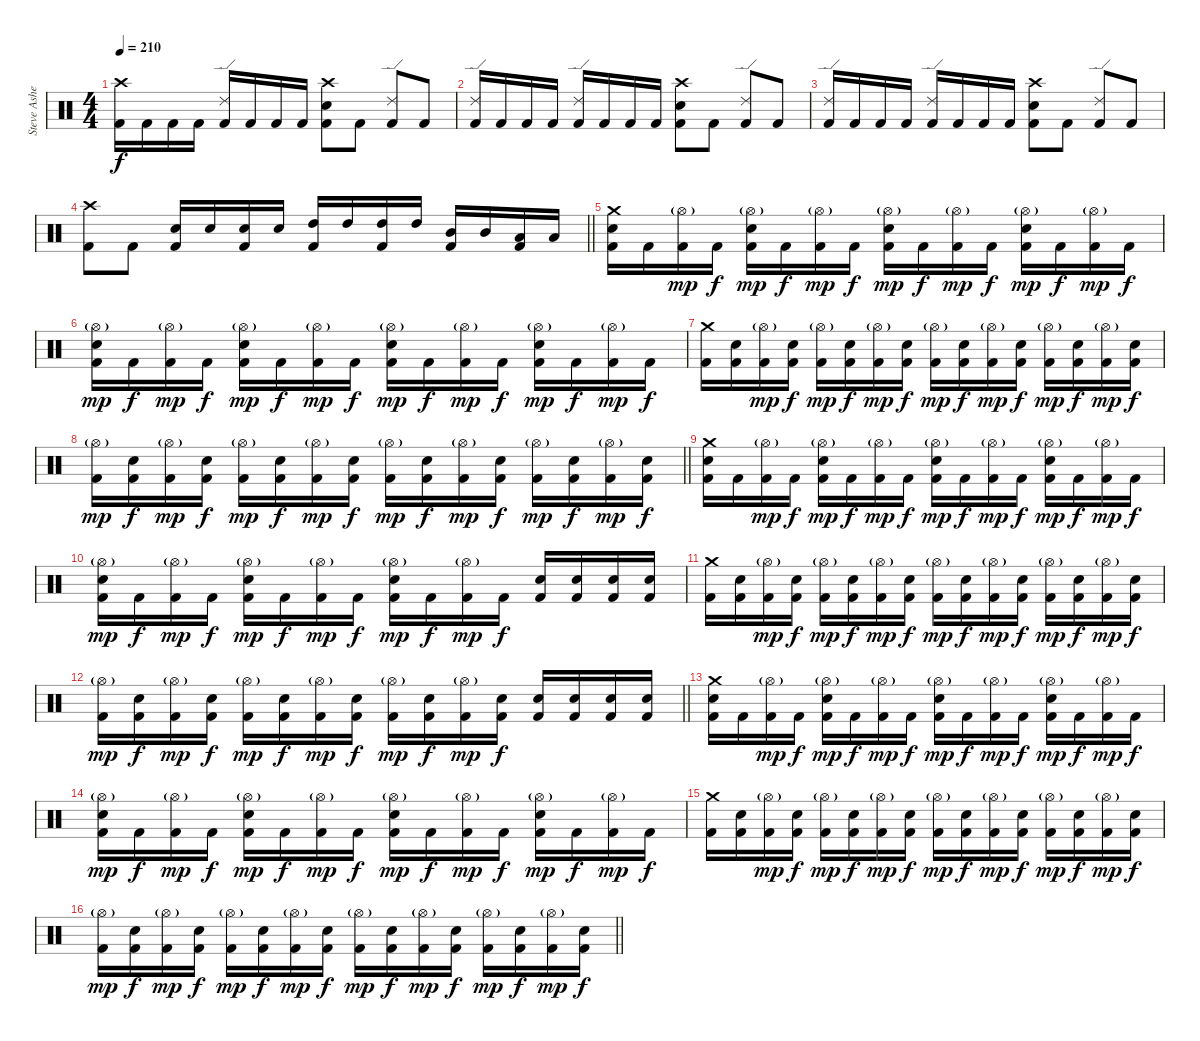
\track ("Steve Asheim" "Steve Ashe") {instrument percussion}
\staff {score}
\articulation defaults
\ts (4 4)
\tempo 210
\clef neutral
\ks c
("Crash high (hit)" "Kick (hit) 2").16{dy f} "Kick (hit) 2".16 "Kick (hit) 2".16 "Kick (hit) 2".16 ("Ride (edge) 2" "Kick (hit) 2").16 "Kick (hit) 2".16 "Kick (hit) 2".16 "Kick (hit) 2".16 ("Crash high (hit)" "Electric Snare (hit)" "Kick (hit) 2").8 "Kick (hit) 2".8 ("Ride (edge) 2" "Kick (hit) 2").8 "Kick (hit) 2".8 |
("Ride (edge) 2" "Kick (hit) 2").16 "Kick (hit) 2".16 "Kick (hit) 2".16 "Kick (hit) 2".16 ("Ride (edge) 2" "Kick (hit) 2").16 "Kick (hit) 2".16 "Kick (hit) 2".16 "Kick (hit) 2".16 ("Crash high (hit)" "Electric Snare (hit)" "Kick (hit) 2").8 "Kick (hit) 2".8 ("Ride (edge) 2" "Kick (hit) 2").8 "Kick (hit) 2".8 |
("Ride (edge) 2" "Kick (hit) 2").16 "Kick (hit) 2".16 "Kick (hit) 2".16 "Kick (hit) 2".16 ("Ride (edge) 2" "Kick (hit) 2").16 "Kick (hit) 2".16 "Kick (hit) 2".16 "Kick (hit) 2".16 ("Crash high (hit)" "Electric Snare (hit)" "Kick (hit) 2").8 "Kick (hit) 2".8 ("Ride (edge) 2" "Kick (hit) 2").8 "Kick (hit) 2".8 |
\barLineRight lightlight
("Crash high (hit)" "Kick (hit) 2").8 "Kick (hit) 2".8 ("Electric Snare (hit)" "Kick (hit) 2").16 "Electric Snare (hit)".16 ("Electric Snare (hit)" "Kick (hit) 2").16 "Electric Snare (hit)".16 ("High Tom (hit)" "Kick (hit) 2").16 "High Tom (hit)".16 ("High Tom (hit)" "Kick (hit) 2").16 "High Tom (hit)".16 ("Mid Tom (hit)" "Kick (hit) 2").16 "Mid Tom (hit)".16 ("Low Tom (hit)" "Kick (hit) 2").16 "Low Tom (hit)".16 |
("Crash medium (hit)" "Electric Snare (hit)" "Kick (hit) 2").16 "Kick (hit) 2".16 ("Hi-Hat (open)"{g} "Kick (hit) 2").16{dy mp} "Kick (hit) 2".16{dy f} ("Hi-Hat (open)"{g} "Electric Snare (hit)" "Kick (hit) 2").16{dy mp} "Kick (hit) 2".16{dy f} ("Hi-Hat (open)"{g} "Kick (hit) 2").16{dy mp} "Kick (hit) 2".16{dy f} ("Hi-Hat (open)"{g} "Electric Snare (hit)" "Kick (hit) 2").16{dy mp} "Kick (hit) 2".16{dy f} ("Hi-Hat (open)"{g} "Kick (hit) 2").16{dy mp} "Kick (hit) 2".16{dy f} ("Hi-Hat (open)"{g} "Electric Snare (hit)" "Kick (hit) 2").16{dy mp} "Kick (hit) 2".16{dy f} ("Hi-Hat (open)"{g} "Kick (hit) 2").16{dy mp} "Kick (hit) 2".16{dy f} |
("Hi-Hat (open)"{g} "Electric Snare (hit)" "Kick (hit) 2").16{dy mp} "Kick (hit) 2".16{dy f} ("Hi-Hat (open)"{g} "Kick (hit) 2").16{dy mp} "Kick (hit) 2".16{dy f} ("Hi-Hat (open)"{g} "Electric Snare (hit)" "Kick (hit) 2").16{dy mp} "Kick (hit) 2".16{dy f} ("Hi-Hat (open)"{g} "Kick (hit) 2").16{dy mp} "Kick (hit) 2".16{dy f} ("Hi-Hat (open)"{g} "Electric Snare (hit)" "Kick (hit) 2").16{dy mp} "Kick (hit) 2".16{dy f} ("Hi-Hat (open)"{g} "Kick (hit) 2").16{dy mp} "Kick (hit) 2".16{dy f} ("Hi-Hat (open)"{g} "Electric Snare (hit)" "Kick (hit) 2").16{dy mp} "Kick (hit) 2".16{dy f} ("Hi-Hat (open)"{g} "Kick (hit) 2").16{dy mp} "Kick (hit) 2".16{dy f} |
("Crash medium (hit)" "Kick (hit) 2").16 ("Electric Snare (hit)" "Kick (hit) 2").16 ("Hi-Hat (open)"{g} "Kick (hit) 2").16{dy mp} ("Electric Snare (hit)" "Kick (hit) 2").16{dy f} ("Hi-Hat (open)"{g} "Kick (hit) 2").16{dy mp} ("Electric Snare (hit)" "Kick (hit) 2").16{dy f} ("Hi-Hat (open)"{g} "Kick (hit) 2").16{dy mp} ("Electric Snare (hit)" "Kick (hit) 2").16{dy f} ("Hi-Hat (open)"{g} "Kick (hit) 2").16{dy mp} ("Electric Snare (hit)" "Kick (hit) 2").16{dy f} ("Hi-Hat (open)"{g} "Kick (hit) 2").16{dy mp} ("Electric Snare (hit)" "Kick (hit) 2").16{dy f} ("Hi-Hat (open)"{g} "Kick (hit) 2").16{dy mp} ("Electric Snare (hit)" "Kick (hit) 2").16{dy f} ("Hi-Hat (open)"{g} "Kick (hit) 2").16{dy mp} ("Electric Snare (hit)" "Kick (hit) 2").16{dy f} |
\barLineRight lightlight
("Hi-Hat (open)"{g} "Kick (hit) 2").16{dy mp} ("Electric Snare (hit)" "Kick (hit) 2").16{dy f} ("Hi-Hat (open)"{g} "Kick (hit) 2").16{dy mp} ("Electric Snare (hit)" "Kick (hit) 2").16{dy f} ("Hi-Hat (open)"{g} "Kick (hit) 2").16{dy mp} ("Electric Snare (hit)" "Kick (hit) 2").16{dy f} ("Hi-Hat (open)"{g} "Kick (hit) 2").16{dy mp} ("Electric Snare (hit)" "Kick (hit) 2").16{dy f} ("Hi-Hat (open)"{g} "Kick (hit) 2").16{dy mp} ("Electric Snare (hit)" "Kick (hit) 2").16{dy f} ("Hi-Hat (open)"{g} "Kick (hit) 2").16{dy mp} ("Electric Snare (hit)" "Kick (hit) 2").16{dy f} ("Hi-Hat (open)"{g} "Kick (hit) 2").16{dy mp} ("Electric Snare (hit)" "Kick (hit) 2").16{dy f} ("Hi-Hat (open)"{g} "Kick (hit) 2").16{dy mp} ("Electric Snare (hit)" "Kick (hit) 2").16{dy f} |
("Crash medium (hit)" "Electric Snare (hit)" "Kick (hit) 2").16 "Kick (hit) 2".16 ("Hi-Hat (open)"{g} "Kick (hit) 2").16{dy mp} "Kick (hit) 2".16{dy f} ("Hi-Hat (open)"{g} "Electric Snare (hit)" "Kick (hit) 2").16{dy mp} "Kick (hit) 2".16{dy f} ("Hi-Hat (open)"{g} "Kick (hit) 2").16{dy mp} "Kick (hit) 2".16{dy f} ("Hi-Hat (open)"{g} "Electric Snare (hit)" "Kick (hit) 2").16{dy mp} "Kick (hit) 2".16{dy f} ("Hi-Hat (open)"{g} "Kick (hit) 2").16{dy mp} "Kick (hit) 2".16{dy f} ("Hi-Hat (open)"{g} "Electric Snare (hit)" "Kick (hit) 2").16{dy mp} "Kick (hit) 2".16{dy f} ("Hi-Hat (open)"{g} "Kick (hit) 2").16{dy mp} "Kick (hit) 2".16{dy f} |
("Hi-Hat (open)"{g} "Electric Snare (hit)" "Kick (hit) 2").16{dy mp} "Kick (hit) 2".16{dy f} ("Hi-Hat (open)"{g} "Kick (hit) 2").16{dy mp} "Kick (hit) 2".16{dy f} ("Hi-Hat (open)"{g} "Electric Snare (hit)" "Kick (hit) 2").16{dy mp} "Kick (hit) 2".16{dy f} ("Hi-Hat (open)"{g} "Kick (hit) 2").16{dy mp} "Kick (hit) 2".16{dy f} ("Hi-Hat (open)"{g} "Electric Snare (hit)" "Kick (hit) 2").16{dy mp} "Kick (hit) 2".16{dy f} ("Hi-Hat (open)"{g} "Kick (hit) 2").16{dy mp} "Kick (hit) 2".16{dy f} ("Electric Snare (hit)" "Kick (hit) 2").16 ("Electric Snare (hit)" "Kick (hit) 2").16 ("Electric Snare (hit)" "Kick (hit) 2").16 ("Electric Snare (hit)" "Kick (hit) 2").16 |
("Crash medium (hit)" "Kick (hit) 2").16 ("Electric Snare (hit)" "Kick (hit) 2").16 ("Hi-Hat (open)"{g} "Kick (hit) 2").16{dy mp} ("Electric Snare (hit)" "Kick (hit) 2").16{dy f} ("Hi-Hat (open)"{g} "Kick (hit) 2").16{dy mp} ("Electric Snare (hit)" "Kick (hit) 2").16{dy f} ("Hi-Hat (open)"{g} "Kick (hit) 2").16{dy mp} ("Electric Snare (hit)" "Kick (hit) 2").16{dy f} ("Hi-Hat (open)"{g} "Kick (hit) 2").16{dy mp} ("Electric Snare (hit)" "Kick (hit) 2").16{dy f} ("Hi-Hat (open)"{g} "Kick (hit) 2").16{dy mp} ("Electric Snare (hit)" "Kick (hit) 2").16{dy f} ("Hi-Hat (open)"{g} "Kick (hit) 2").16{dy mp} ("Electric Snare (hit)" "Kick (hit) 2").16{dy f} ("Hi-Hat (open)"{g} "Kick (hit) 2").16{dy mp} ("Electric Snare (hit)" "Kick (hit) 2").16{dy f} |
\barLineRight lightlight
("Hi-Hat (open)"{g} "Kick (hit) 2").16{dy mp} ("Electric Snare (hit)" "Kick (hit) 2").16{dy f} ("Hi-Hat (open)"{g} "Kick (hit) 2").16{dy mp} ("Electric Snare (hit)" "Kick (hit) 2").16{dy f} ("Hi-Hat (open)"{g} "Kick (hit) 2").16{dy mp} ("Electric Snare (hit)" "Kick (hit) 2").16{dy f} ("Hi-Hat (open)"{g} "Kick (hit) 2").16{dy mp} ("Electric Snare (hit)" "Kick (hit) 2").16{dy f} ("Hi-Hat (open)"{g} "Kick (hit) 2").16{dy mp} ("Electric Snare (hit)" "Kick (hit) 2").16{dy f} ("Hi-Hat (open)"{g} "Kick (hit) 2").16{dy mp} ("Electric Snare (hit)" "Kick (hit) 2").16{dy f} ("Electric Snare (hit)" "Kick (hit) 2").16 ("Electric Snare (hit)" "Kick (hit) 2").16 ("Electric Snare (hit)" "Kick (hit) 2").16 ("Electric Snare (hit)" "Kick (hit) 2").16 |
("Crash medium (hit)" "Electric Snare (hit)" "Kick (hit) 2").16 "Kick (hit) 2".16 ("Hi-Hat (open)"{g} "Kick (hit) 2").16{dy mp} "Kick (hit) 2".16{dy f} ("Hi-Hat (open)"{g} "Electric Snare (hit)" "Kick (hit) 2").16{dy mp} "Kick (hit) 2".16{dy f} ("Hi-Hat (open)"{g} "Kick (hit) 2").16{dy mp} "Kick (hit) 2".16{dy f} ("Hi-Hat (open)"{g} "Electric Snare (hit)" "Kick (hit) 2").16{dy mp} "Kick (hit) 2".16{dy f} ("Hi-Hat (open)"{g} "Kick (hit) 2").16{dy mp} "Kick (hit) 2".16{dy f} ("Hi-Hat (open)"{g} "Electric Snare (hit)" "Kick (hit) 2").16{dy mp} "Kick (hit) 2".16{dy f} ("Hi-Hat (open)"{g} "Kick (hit) 2").16{dy mp} "Kick (hit) 2".16{dy f} |
("Hi-Hat (open)"{g} "Electric Snare (hit)" "Kick (hit) 2").16{dy mp} "Kick (hit) 2".16{dy f} ("Hi-Hat (open)"{g} "Kick (hit) 2").16{dy mp} "Kick (hit) 2".16{dy f} ("Hi-Hat (open)"{g} "Electric Snare (hit)" "Kick (hit) 2").16{dy mp} "Kick (hit) 2".16{dy f} ("Hi-Hat (open)"{g} "Kick (hit) 2").16{dy mp} "Kick (hit) 2".16{dy f} ("Hi-Hat (open)"{g} "Electric Snare (hit)" "Kick (hit) 2").16{dy mp} "Kick (hit) 2".16{dy f} ("Hi-Hat (open)"{g} "Kick (hit) 2").16{dy mp} "Kick (hit) 2".16{dy f} ("Hi-Hat (open)"{g} "Electric Snare (hit)" "Kick (hit) 2").16{dy mp} "Kick (hit) 2".16{dy f} ("Hi-Hat (open)"{g} "Kick (hit) 2").16{dy mp} "Kick (hit) 2".16{dy f} |
("Crash medium (hit)" "Kick (hit) 2").16 ("Electric Snare (hit)" "Kick (hit) 2").16 ("Hi-Hat (open)"{g} "Kick (hit) 2").16{dy mp} ("Electric Snare (hit)" "Kick (hit) 2").16{dy f} ("Hi-Hat (open)"{g} "Kick (hit) 2").16{dy mp} ("Electric Snare (hit)" "Kick (hit) 2").16{dy f} ("Hi-Hat (open)"{g} "Kick (hit) 2").16{dy mp} ("Electric Snare (hit)" "Kick (hit) 2").16{dy f} ("Hi-Hat (open)"{g} "Kick (hit) 2").16{dy mp} ("Electric Snare (hit)" "Kick (hit) 2").16{dy f} ("Hi-Hat (open)"{g} "Kick (hit) 2").16{dy mp} ("Electric Snare (hit)" "Kick (hit) 2").16{dy f} ("Hi-Hat (open)"{g} "Kick (hit) 2").16{dy mp} ("Electric Snare (hit)" "Kick (hit) 2").16{dy f} ("Hi-Hat (open)"{g} "Kick (hit) 2").16{dy mp} ("Electric Snare (hit)" "Kick (hit) 2").16{dy f} |
\barLineRight lightlight
("Hi-Hat (open)"{g} "Kick (hit) 2").16{dy mp} ("Electric Snare (hit)" "Kick (hit) 2").16{dy f} ("Hi-Hat (open)"{g} "Kick (hit) 2").16{dy mp} ("Electric Snare (hit)" "Kick (hit) 2").16{dy f} ("Hi-Hat (open)"{g} "Kick (hit) 2").16{dy mp} ("Electric Snare (hit)" "Kick (hit) 2").16{dy f} ("Hi-Hat (open)"{g} "Kick (hit) 2").16{dy mp} ("Electric Snare (hit)" "Kick (hit) 2").16{dy f} ("Hi-Hat (open)"{g} "Kick (hit) 2").16{dy mp} ("Electric Snare (hit)" "Kick (hit) 2").16{dy f} ("Hi-Hat (open)"{g} "Kick (hit) 2").16{dy mp} ("Electric Snare (hit)" "Kick (hit) 2").16{dy f} ("Hi-Hat (open)"{g} "Kick (hit) 2").16{dy mp} ("Electric Snare (hit)" "Kick (hit) 2").16{dy f} ("Hi-Hat (open)"{g} "Kick (hit) 2").16{dy mp} ("Electric Snare (hit)" "Kick (hit) 2").16{dy f}
